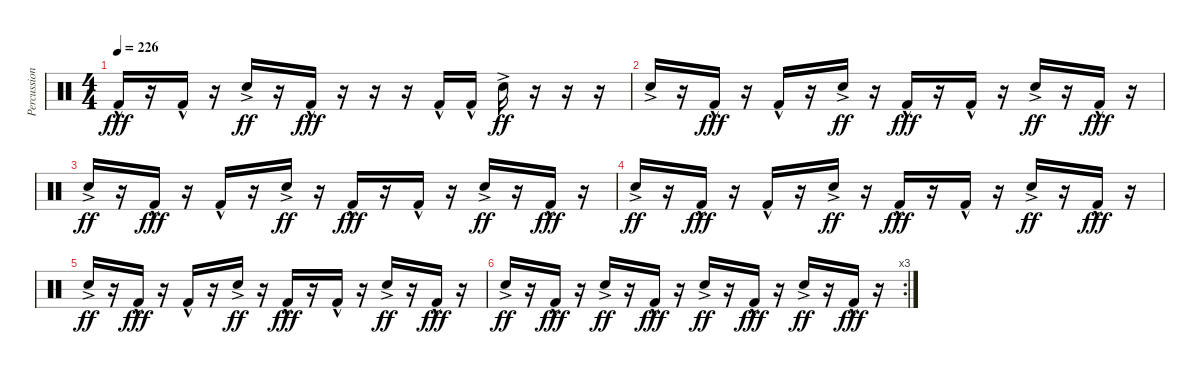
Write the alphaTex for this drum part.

\track ("Percussion" "Percussion") {instrument percussion bank 255}
\staff {score}
\articulation defaults
\ts (4 4)
\tempo 226
\clef neutral
\ks c "Kick (hit) 2"{hac}.16{dy fff}
r.16 "Kick (hit) 2"{hac}.16 r.16 "Snare (hit) 2"{ac}.16{dy ff} r.16 "Kick (hit) 2"{hac}.16{dy fff} r.16 r.16 r.16 "Kick (hit) 2"{hac}.16 "Kick (hit) 2"{hac}.16 "Snare (hit) 2"{ac}.16{dy ff} r.16 r.16 r.16 |
"Snare (hit) 2"{ac}.16 r.16 "Kick (hit) 2"{hac}.16{dy fff} r.16 "Kick (hit) 2"{hac}.16 r.16 "Snare (hit) 2"{ac}.16{dy ff} r.16 "Kick (hit) 2"{hac}.16{dy fff} r.16 "Kick (hit) 2"{hac}.16 r.16 "Snare (hit) 2"{ac}.16{dy ff} r.16 "Kick (hit) 2"{hac}.16{dy fff} r.16 |
"Snare (hit) 2"{ac}.16{dy ff} r.16 "Kick (hit) 2"{hac}.16{dy fff} r.16 "Kick (hit) 2"{hac}.16 r.16 "Snare (hit) 2"{ac}.16{dy ff} r.16 "Kick (hit) 2"{hac}.16{dy fff} r.16 "Kick (hit) 2"{hac}.16 r.16 "Snare (hit) 2"{ac}.16{dy ff} r.16 "Kick (hit) 2"{hac}.16{dy fff} r.16 |
"Snare (hit) 2"{ac}.16{dy ff} r.16 "Kick (hit) 2"{hac}.16{dy fff} r.16 "Kick (hit) 2"{hac}.16 r.16 "Snare (hit) 2"{ac}.16{dy ff} r.16 "Kick (hit) 2"{hac}.16{dy fff} r.16 "Kick (hit) 2"{hac}.16 r.16 "Snare (hit) 2"{ac}.16{dy ff} r.16 "Kick (hit) 2"{hac}.16{dy fff} r.16 |
"Snare (hit) 2"{ac}.16{dy ff} r.16 "Kick (hit) 2"{hac}.16{dy fff} r.16 "Kick (hit) 2"{hac}.16 r.16 "Snare (hit) 2"{ac}.16{dy ff} r.16 "Kick (hit) 2"{hac}.16{dy fff} r.16 "Kick (hit) 2"{hac}.16 r.16 "Snare (hit) 2"{ac}.16{dy ff} r.16 "Kick (hit) 2"{hac}.16{dy fff} r.16 |
\rc 3 "Snare (hit) 2"{ac}.16{dy ff}
r.16 "Kick (hit) 2"{hac}.16{dy fff} r.16 "Snare (hit) 2"{ac}.16{dy ff} r.16 "Kick (hit) 2"{hac}.16{dy fff} r.16 "Snare (hit) 2"{ac}.16{dy ff} r.16 "Kick (hit) 2"{hac}.16{dy fff} r.16 "Snare (hit) 2"{ac}.16{dy ff} r.16 "Kick (hit) 2"{hac}.16{dy fff} r.16
